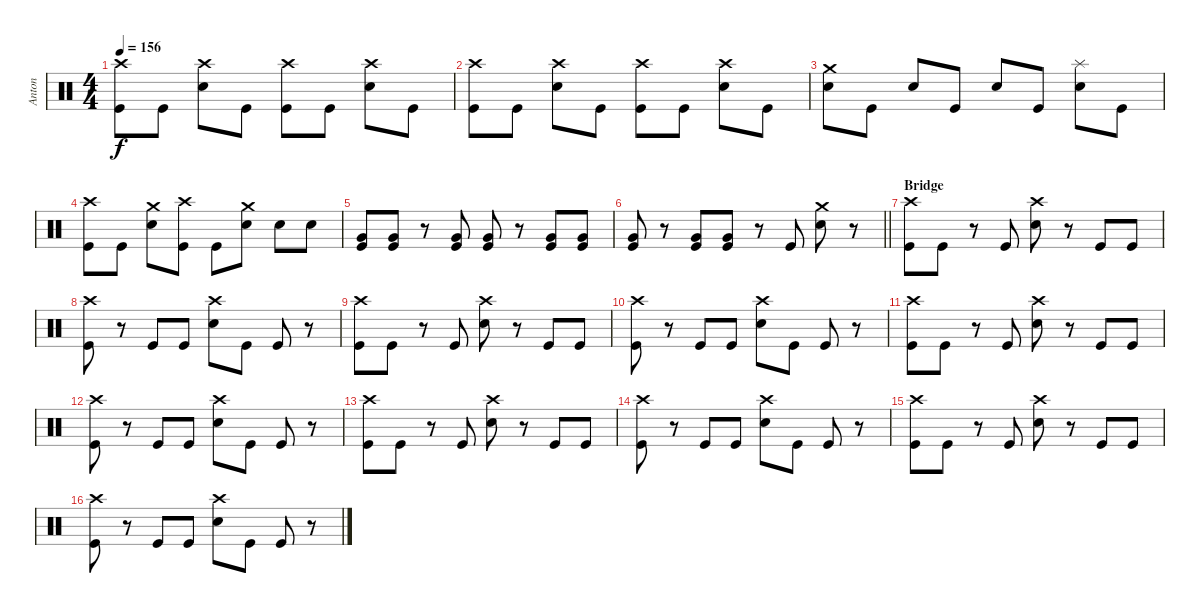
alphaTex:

\track ("Anton " "Anton ") {instrument percussion}
\staff
\articulation defaults
\ts (4 4)
\tempo 156
\clef neutral
\ks c
("Crash high (hit)" "Kick (hit)").8{dy f} "Kick (hit)".8 ("Crash high (hit)" "Snare (hit) 2").8 "Kick (hit)".8 ("Crash high (hit)" "Kick (hit)").8 "Kick (hit)".8 ("Crash high (hit)" "Snare (hit) 2").8 "Kick (hit)".8 |
("Crash high (hit)" "Kick (hit)").8 "Kick (hit)".8 ("Crash high (hit)" "Snare (hit) 2").8 "Kick (hit)".8 ("Crash high (hit)" "Kick (hit)").8 "Kick (hit)".8 ("Crash high (hit)" "Snare (hit) 2").8 "Kick (hit)".8 |
("Snare (hit) 2" "Crash medium (hit)").8 "Kick (hit)".8 "Snare (hit) 2".8 "Kick (hit)".8 "Snare (hit) 2".8 "Kick (hit)".8 ("Snare (hit) 2" "Splash (hit)").8 "Kick (hit)".8 |
("Crash high (hit)" "Kick (hit)").8 "Kick (hit)".8 ("Snare (hit) 2" "Crash medium (hit)").8 ("Kick (hit)" "Crash high (hit)").8 "Kick (hit)".8 ("Snare (hit) 2" "Crash medium (hit)").8 "Snare (hit) 2".8 "Snare (hit) 2".8 |
("Kick (hit)" "Very Low Tom (hit)").8 ("Very Low Tom (hit)" "Kick (hit)").8 r.8 ("Kick (hit)" "Very Low Tom (hit)").8 ("Kick (hit)" "Very Low Tom (hit)").8 r.8 ("Kick (hit)" "Very Low Tom (hit)").8 ("Kick (hit)" "Very Low Tom (hit)").8 |
\barLineRight lightlight
("Kick (hit)" "Very Low Tom (hit)").8 r.8 ("Kick (hit)" "Very Low Tom (hit)").8 ("Kick (hit)" "Very Low Tom (hit)").8 r.8 "Kick (hit)".8 ("Snare (hit) 2" "Crash medium (hit)").8 r.8 |
\section ("" "Bridge")
("Crash high (hit)" "Kick (hit)").8 "Kick (hit)".8 r.8 "Kick (hit)".8 ("Crash high (hit)" "Snare (hit) 2").8 r.8 "Kick (hit)".8 "Kick (hit)".8 |
("Crash high (hit)" "Kick (hit)").8 r.8 "Kick (hit)".8 "Kick (hit)".8 ("Crash high (hit)" "Snare (hit) 2").8 "Kick (hit)".8 "Kick (hit)".8 r.8 |
("Crash high (hit)" "Kick (hit)").8 "Kick (hit)".8 r.8 "Kick (hit)".8 ("Crash high (hit)" "Snare (hit) 2").8 r.8 "Kick (hit)".8 "Kick (hit)".8 |
("Crash high (hit)" "Kick (hit)").8 r.8 "Kick (hit)".8 "Kick (hit)".8 ("Crash high (hit)" "Snare (hit) 2").8 "Kick (hit)".8 "Kick (hit)".8 r.8 |
("Crash high (hit)" "Kick (hit)").8 "Kick (hit)".8 r.8 "Kick (hit)".8 ("Crash high (hit)" "Snare (hit) 2").8 r.8 "Kick (hit)".8 "Kick (hit)".8 |
("Crash high (hit)" "Kick (hit)").8 r.8 "Kick (hit)".8 "Kick (hit)".8 ("Crash high (hit)" "Snare (hit) 2").8 "Kick (hit)".8 "Kick (hit)".8 r.8 |
("Crash high (hit)" "Kick (hit)").8 "Kick (hit)".8 r.8 "Kick (hit)".8 ("Crash high (hit)" "Snare (hit) 2").8 r.8 "Kick (hit)".8 "Kick (hit)".8 |
("Crash high (hit)" "Kick (hit)").8 r.8 "Kick (hit)".8 "Kick (hit)".8 ("Crash high (hit)" "Snare (hit) 2").8 "Kick (hit)".8 "Kick (hit)".8 r.8 |
("Crash high (hit)" "Kick (hit)").8 "Kick (hit)".8 r.8 "Kick (hit)".8 ("Crash high (hit)" "Snare (hit) 2").8 r.8 "Kick (hit)".8 "Kick (hit)".8 |
("Crash high (hit)" "Kick (hit)").8 r.8 "Kick (hit)".8 "Kick (hit)".8 ("Crash high (hit)" "Snare (hit) 2").8 "Kick (hit)".8 "Kick (hit)".8 r.8
